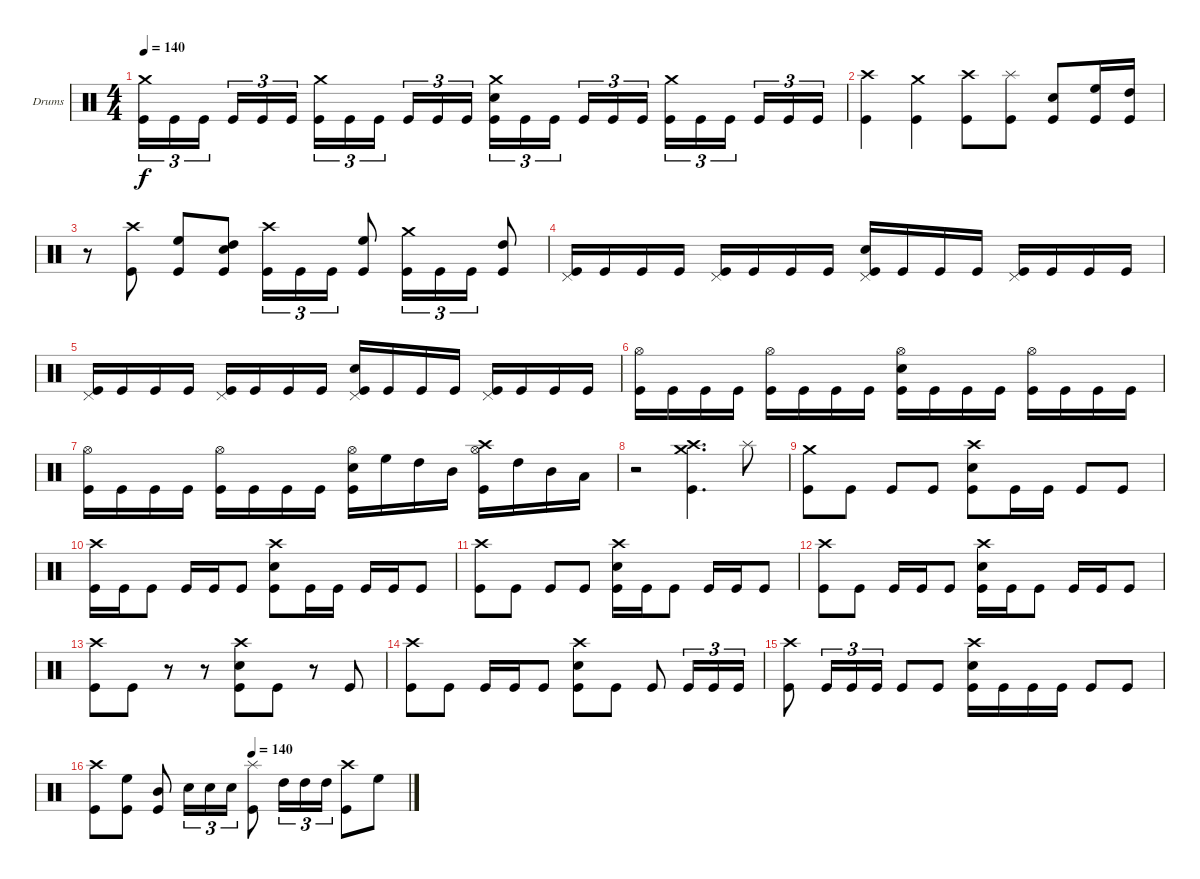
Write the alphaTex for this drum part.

\bracketExtendMode groupsimilarinstruments
\firstSystemTrackNameOrientation horizontal
\otherSystemsTrackNameOrientation horizontal
\track ("Drumkit" "Drums") {instrument percussion}
\staff {score}
\articulation defaults
\ts (4 4)
\tempo 140
\clef neutral
\ks c
("Crash medium (hit)" "Kick (hit)").16{tu (3 2) dy f} "Kick (hit)".16{tu (3 2)} "Kick (hit)".16{tu (3 2)} "Kick (hit)".16{tu (3 2)} "Kick (hit)".16{tu (3 2)} "Kick (hit)".16{tu (3 2)} ("Crash medium (hit)" "Kick (hit)").16{tu (3 2)} "Kick (hit)".16{tu (3 2)} "Kick (hit)".16{tu (3 2)} "Kick (hit)".16{tu (3 2)} "Kick (hit)".16{tu (3 2)} "Kick (hit)".16{tu (3 2)} ("Snare (hit) 2" "Crash medium (hit)" "Kick (hit)").16{tu (3 2)} "Kick (hit)".16{tu (3 2)} "Kick (hit)".16{tu (3 2)} "Kick (hit)".16{tu (3 2)} "Kick (hit)".16{tu (3 2)} "Kick (hit)".16{tu (3 2)} ("Crash medium (hit)" "Kick (hit)").16{tu (3 2)} "Kick (hit)".16{tu (3 2)} "Kick (hit)".16{tu (3 2)} "Kick (hit)".16{tu (3 2)} "Kick (hit)".16{tu (3 2)} "Kick (hit)".16{tu (3 2)} |
("Crash high (hit)" "Kick (hit)").4 ("Crash medium (hit)" "Kick (hit)").4 ("Kick (hit)" "Crash high (hit)").8 ("Kick (hit)" "Splash (hit)").8 ("Kick (hit)" "Snare (hit) 2").8 ("Kick (hit)" "High Floor Tom (hit)").16 ("Kick (hit)" "High Tom (hit)").16 |
r.8 ("Kick (hit)" "Crash high (hit)").8 ("Kick (hit)" "High Floor Tom (hit)").8 ("Kick (hit)" "Snare (hit) 2" "High Tom (hit)").8 ("Crash high (hit)" "Kick (hit)").16{tu (3 2)} "Kick (hit)".16{tu (3 2)} "Kick (hit)".16{tu (3 2)} ("High Floor Tom (hit)" "Kick (hit)").8 ("Crash medium (hit)" "Kick (hit)").16{tu (3 2)} "Kick (hit)".16{tu (3 2)} "Kick (hit)".16{tu (3 2)} ("High Tom (hit)" "Kick (hit)").8 |
("Kick (hit)" "Pedal Hi-Hat (hit)").16 "Kick (hit)".16 "Kick (hit)".16 "Kick (hit)".16 ("Kick (hit)" "Pedal Hi-Hat (hit)").16 "Kick (hit)".16 "Kick (hit)".16 "Kick (hit)".16 ("Kick (hit)" "Snare (hit) 2" "Pedal Hi-Hat (hit)").16 "Kick (hit)".16 "Kick (hit)".16 "Kick (hit)".16 ("Kick (hit)" "Pedal Hi-Hat (hit)").16 "Kick (hit)".16 "Kick (hit)".16 "Kick (hit)".16 |
("Kick (hit)" "Pedal Hi-Hat (hit)").16 "Kick (hit)".16 "Kick (hit)".16 "Kick (hit)".16 ("Kick (hit)" "Pedal Hi-Hat (hit)").16 "Kick (hit)".16 "Kick (hit)".16 "Kick (hit)".16 ("Kick (hit)" "Snare (hit) 2" "Pedal Hi-Hat (hit)").16 "Kick (hit)".16 "Kick (hit)".16 "Kick (hit)".16 ("Kick (hit)" "Pedal Hi-Hat (hit)").16 "Kick (hit)".16 "Kick (hit)".16 "Kick (hit)".16 |
("Kick (hit)" "Hi-Hat (open)").16 "Kick (hit)".16 "Kick (hit)".16 "Kick (hit)".16 ("Kick (hit)" "Hi-Hat (open)").16 "Kick (hit)".16 "Kick (hit)".16 "Kick (hit)".16 ("Kick (hit)" "Snare (hit) 2" "Hi-Hat (open)").16 "Kick (hit)".16 "Kick (hit)".16 "Kick (hit)".16 ("Kick (hit)" "Hi-Hat (open)").16 "Kick (hit)".16 "Kick (hit)".16 "Kick (hit)".16 |
("Kick (hit)" "Hi-Hat (open)").16 "Kick (hit)".16 "Kick (hit)".16 "Kick (hit)".16 ("Kick (hit)" "Hi-Hat (open)").16 "Kick (hit)".16 "Kick (hit)".16 "Kick (hit)".16 ("Kick (hit)" "Snare (hit) 2" "Hi-Hat (open)").16 "High Floor Tom (hit)".16 "High Tom (hit)".16 "Mid Tom (hit)".16 ("Kick (hit)" "Crash high (hit)" "Hi-Hat (open)").16 "High Tom (hit)".16 "Mid Tom (hit)".16 "Low Tom (hit)".16 |
r.2 ("Kick (hit)" "Crash high (hit)" "Crash medium (hit)").4{d} "Splash (hit)".8 |
("Kick (hit)" "Crash medium (hit)").8 "Kick (hit)".8 "Kick (hit)".8 "Kick (hit)".8 ("Kick (hit)" "Snare (hit) 2" "Crash high (hit)").8 "Kick (hit)".16 "Kick (hit)".16 "Kick (hit)".8 "Kick (hit)".8 |
("Kick (hit)" "Crash high (hit)").16 "Kick (hit)".16 "Kick (hit)".8 "Kick (hit)".16 "Kick (hit)".16 "Kick (hit)".8 ("Kick (hit)" "Crash high (hit)" "Snare (hit) 2").8 "Kick (hit)".16 "Kick (hit)".16 "Kick (hit)".16 "Kick (hit)".16 "Kick (hit)".8 |
("Kick (hit)" "Crash high (hit)").8 "Kick (hit)".8 "Kick (hit)".8 "Kick (hit)".8 ("Kick (hit)" "Snare (hit) 2" "Crash high (hit)").16 "Kick (hit)".16 "Kick (hit)".8 "Kick (hit)".16 "Kick (hit)".16 "Kick (hit)".8 |
("Kick (hit)" "Crash high (hit)").8 "Kick (hit)".8 "Kick (hit)".16 "Kick (hit)".16 "Kick (hit)".8 ("Kick (hit)" "Snare (hit) 2" "Crash high (hit)").16 "Kick (hit)".16 "Kick (hit)".8 "Kick (hit)".16 "Kick (hit)".16 "Kick (hit)".8 |
("Kick (hit)" "Crash high (hit)").8 "Kick (hit)".8 r.8 r.8 ("Kick (hit)" "Snare (hit) 2" "Crash high (hit)").8 "Kick (hit)".8 r.8 "Kick (hit)".8 |
("Crash high (hit)" "Kick (hit)").8 "Kick (hit)".8 "Kick (hit)".16 "Kick (hit)".16 "Kick (hit)".8 ("Snare (hit) 2" "Crash high (hit)" "Kick (hit)").8 "Kick (hit)".8 "Kick (hit)".8 "Kick (hit)".16{tu (3 2)} "Kick (hit)".16{tu (3 2)} "Kick (hit)".16{tu (3 2)} |
("Crash high (hit)" "Kick (hit)").8 "Kick (hit)".16{tu (3 2)} "Kick (hit)".16{tu (3 2)} "Kick (hit)".16{tu (3 2)} "Kick (hit)".8 "Kick (hit)".8 ("Snare (hit) 2" "Crash high (hit)" "Kick (hit)").16 "Kick (hit)".16 "Kick (hit)".16 "Kick (hit)".16 "Kick (hit)".8 "Kick (hit)".8 |
\tempo (140 0.5)
("Kick (hit)" "Crash high (hit)").8 ("Kick (hit)" "High Floor Tom (hit)").8 ("Kick (hit)" "Mid Tom (hit)").8 "Snare (hit) 2".16{tu (3 2)} "Snare (hit) 2".16{tu (3 2)} "Snare (hit) 2".16{tu (3 2)} ("Kick (hit)" "Splash (hit)").8 "High Tom (hit)".16{tu (3 2)} "High Tom (hit)".16{tu (3 2)} "High Tom (hit)".16{tu (3 2)} ("Kick (hit)" "Crash high (hit)").8 "High Floor Tom (hit)".8
